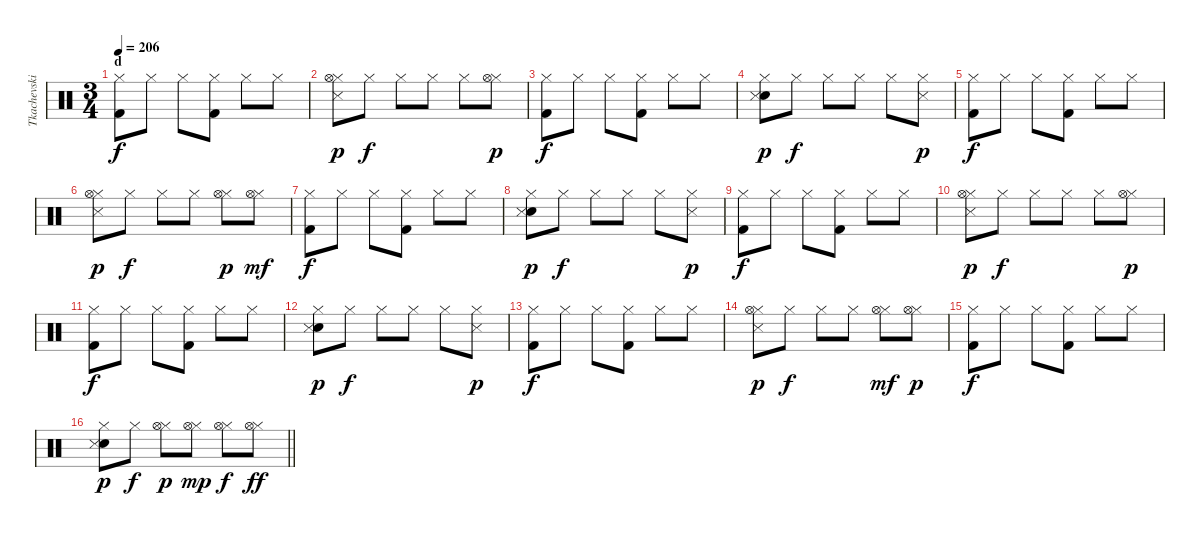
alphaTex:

\track ("Tkachevskiy A" "Tkachevski") {instrument percussion}
\staff {score}
\articulation defaults
\ts (3 4)
\section ("" "d")
\tempo 206
\clef neutral
\ks c
("Hi-Hat (closed)" "Kick (hit) 2").8{dy f} "Hi-Hat (closed)".8 "Hi-Hat (closed)".8 ("Hi-Hat (closed)" "Kick (hit) 2").8 "Hi-Hat (closed)".8 "Hi-Hat (closed)".8 |
("Hi-Hat (closed)" "Hi-Hat (open)" "Snare (side stick) 3").8{dy p} "Hi-Hat (closed)".8{dy f} "Hi-Hat (closed)".8 "Hi-Hat (closed)".8 "Hi-Hat (closed)".8 ("Hi-Hat (closed)" "Hi-Hat (open)").8{dy p} |
("Hi-Hat (closed)" "Kick (hit) 2").8{dy f} "Hi-Hat (closed)".8 "Hi-Hat (closed)".8 ("Hi-Hat (closed)" "Kick (hit) 2").8 "Hi-Hat (closed)".8 "Hi-Hat (closed)".8 |
("Hi-Hat (closed)" "Snare (hit) 2" "Snare (side stick) 3").8{dy p} "Hi-Hat (closed)".8{dy f} "Hi-Hat (closed)".8 "Hi-Hat (closed)".8 "Hi-Hat (closed)".8 ("Hi-Hat (closed)" "Snare (side stick) 3").8{dy p} |
("Hi-Hat (closed)" "Kick (hit) 2").8{dy f} "Hi-Hat (closed)".8 "Hi-Hat (closed)".8 ("Hi-Hat (closed)" "Kick (hit) 2").8 "Hi-Hat (closed)".8 "Hi-Hat (closed)".8 |
("Hi-Hat (closed)" "Hi-Hat (open)" "Snare (side stick) 3").8{dy p} "Hi-Hat (closed)".8{dy f} "Hi-Hat (closed)".8 "Hi-Hat (closed)".8 ("Hi-Hat (closed)" "Hi-Hat (open)").8{dy p} ("Hi-Hat (closed)" "Hi-Hat (open)").8{dy mf} |
("Hi-Hat (closed)" "Kick (hit) 2").8{dy f} "Hi-Hat (closed)".8 "Hi-Hat (closed)".8 ("Hi-Hat (closed)" "Kick (hit) 2").8 "Hi-Hat (closed)".8 "Hi-Hat (closed)".8 |
("Hi-Hat (closed)" "Snare (hit) 2" "Snare (side stick) 3").8{dy p} "Hi-Hat (closed)".8{dy f} "Hi-Hat (closed)".8 "Hi-Hat (closed)".8 "Hi-Hat (closed)".8 ("Hi-Hat (closed)" "Snare (side stick) 3").8{dy p} |
("Hi-Hat (closed)" "Kick (hit) 2").8{dy f} "Hi-Hat (closed)".8 "Hi-Hat (closed)".8 ("Hi-Hat (closed)" "Kick (hit) 2").8 "Hi-Hat (closed)".8 "Hi-Hat (closed)".8 |
("Hi-Hat (closed)" "Hi-Hat (open)" "Snare (side stick) 3").8{dy p} "Hi-Hat (closed)".8{dy f} "Hi-Hat (closed)".8 "Hi-Hat (closed)".8 "Hi-Hat (closed)".8 ("Hi-Hat (closed)" "Hi-Hat (open)").8{dy p} |
("Hi-Hat (closed)" "Kick (hit) 2").8{dy f} "Hi-Hat (closed)".8 "Hi-Hat (closed)".8 ("Hi-Hat (closed)" "Kick (hit) 2").8 "Hi-Hat (closed)".8 "Hi-Hat (closed)".8 |
("Hi-Hat (closed)" "Snare (hit) 2" "Snare (side stick) 3").8{dy p} "Hi-Hat (closed)".8{dy f} "Hi-Hat (closed)".8 "Hi-Hat (closed)".8 "Hi-Hat (closed)".8 ("Hi-Hat (closed)" "Snare (side stick) 3").8{dy p} |
("Hi-Hat (closed)" "Kick (hit) 2").8{dy f} "Hi-Hat (closed)".8 "Hi-Hat (closed)".8 ("Hi-Hat (closed)" "Kick (hit) 2").8 "Hi-Hat (closed)".8 "Hi-Hat (closed)".8 |
("Hi-Hat (closed)" "Hi-Hat (open)" "Snare (side stick) 3").8{dy p} "Hi-Hat (closed)".8{dy f} "Hi-Hat (closed)".8 "Hi-Hat (closed)".8 ("Hi-Hat (closed)" "Hi-Hat (open)").8{dy mf} ("Hi-Hat (closed)" "Hi-Hat (open)").8{dy p} |
("Hi-Hat (closed)" "Kick (hit) 2").8{dy f} "Hi-Hat (closed)".8 "Hi-Hat (closed)".8 ("Hi-Hat (closed)" "Kick (hit) 2").8 "Hi-Hat (closed)".8 "Hi-Hat (closed)".8 |
\barLineRight lightlight
("Hi-Hat (closed)" "Snare (hit) 2" "Snare (side stick) 3").8{dy p} "Hi-Hat (closed)".8{dy f} ("Hi-Hat (closed)" "Hi-Hat (open)").8{dy p} ("Hi-Hat (closed)" "Hi-Hat (open)").8{dy mp} ("Hi-Hat (closed)" "Hi-Hat (open)").8{dy f} ("Hi-Hat (closed)" "Hi-Hat (open)").8{dy ff}
